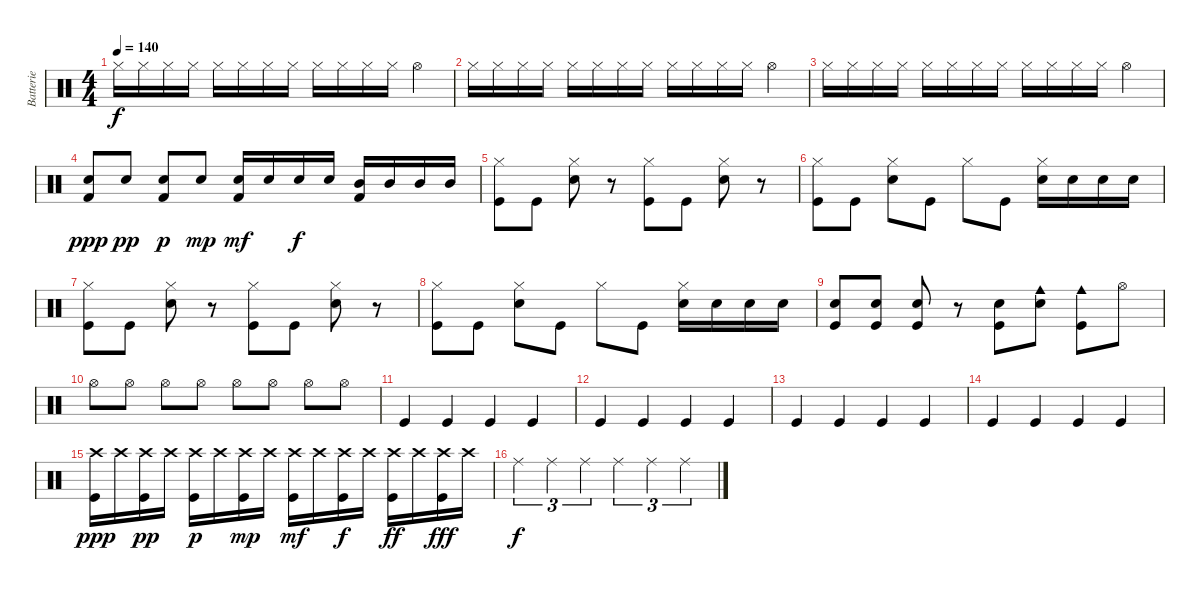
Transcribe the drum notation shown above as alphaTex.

\track ("Batterie" "Batterie") {instrument percussion}
\staff {score}
\articulation defaults
\ts (4 4)
\tempo 140
\clef neutral
\ks c "Hi-Hat (closed)".16{dy f} "Hi-Hat (closed)".16 "Hi-Hat (closed)".16 "Hi-Hat (closed)".16 "Hi-Hat (closed)".16 "Hi-Hat (closed)".16 "Hi-Hat (closed)".16 "Hi-Hat (closed)".16 "Hi-Hat (closed)".16 "Hi-Hat (closed)".16 "Hi-Hat (closed)".16 "Hi-Hat (closed)".16 "Hi-Hat (open)".4
|
"Hi-Hat (closed)".16 "Hi-Hat (closed)".16 "Hi-Hat (closed)".16 "Hi-Hat (closed)".16 "Hi-Hat (closed)".16 "Hi-Hat (closed)".16 "Hi-Hat (closed)".16 "Hi-Hat (closed)".16 "Hi-Hat (closed)".16 "Hi-Hat (closed)".16 "Hi-Hat (closed)".16 "Hi-Hat (closed)".16 "Hi-Hat (open)".4 |
"Hi-Hat (closed)".16 "Hi-Hat (closed)".16 "Hi-Hat (closed)".16 "Hi-Hat (closed)".16 "Hi-Hat (closed)".16 "Hi-Hat (closed)".16 "Hi-Hat (closed)".16 "Hi-Hat (closed)".16 "Hi-Hat (closed)".16 "Hi-Hat (closed)".16 "Hi-Hat (closed)".16 "Hi-Hat (closed)".16 "Hi-Hat (open)".4 |
("Snare (hit) 2" "Kick (hit) 2").8{dy ppp} "Snare (hit) 2".8{dy pp} ("Snare (hit) 2" "Kick (hit) 2").8{dy p} "Snare (hit) 2".8{dy mp} ("Snare (hit) 2" "Kick (hit) 2").16{dy mf} "Snare (hit) 2".16 "Snare (hit) 2".16{dy f} "Snare (hit) 2".16 ("Mid Tom (hit)" "Kick (hit) 2").16 "Mid Tom (hit)".16 "Mid Tom (hit)".16 "Mid Tom (hit)".16 |
("Hi-Hat (closed)" "Kick (hit)").8 "Kick (hit)".8 ("Hi-Hat (closed)" "Snare (hit) 2").8 r.8 ("Hi-Hat (closed)" "Kick (hit)").8 "Kick (hit)".8 ("Hi-Hat (closed)" "Snare (hit) 2").8 r.8 |
("Hi-Hat (closed)" "Kick (hit)").8 "Kick (hit)".8 ("Hi-Hat (closed)" "Snare (hit) 2").8 "Kick (hit)".8 "Hi-Hat (closed)".8 "Kick (hit)".8 ("Hi-Hat (closed)" "Snare (hit) 2").16 "Snare (hit) 2".16 "Snare (hit) 2".16 "Snare (hit) 2".16 |
("Hi-Hat (closed)" "Kick (hit)").8 "Kick (hit)".8 ("Hi-Hat (closed)" "Snare (hit) 2").8 r.8 ("Hi-Hat (closed)" "Kick (hit)").8 "Kick (hit)".8 ("Hi-Hat (closed)" "Snare (hit) 2").8 r.8 |
("Hi-Hat (closed)" "Kick (hit)").8 "Kick (hit)".8 ("Hi-Hat (closed)" "Snare (hit) 2").8 "Kick (hit)".8 "Hi-Hat (closed)".8 "Kick (hit)".8 ("Hi-Hat (closed)" "Snare (hit) 2").16 "Snare (hit) 2".16 "Snare (hit) 2".16 "Snare (hit) 2".16 |
("Snare (hit) 2" "Kick (hit)").8 ("Snare (hit) 2" "Kick (hit)").8 ("Snare (hit) 2" "Kick (hit)").8 r.8 ("Snare (hit) 2" "Kick (hit)").8 ("Cowbell medium (hit)" "Snare (hit) 2").8 ("Cowbell medium (hit)" "Kick (hit)").8 "Hi-Hat (open)".8 |
"Hi-Hat (open)".8 "Hi-Hat (open)".8 "Hi-Hat (open)".8 "Hi-Hat (open)".8 "Hi-Hat (open)".8 "Hi-Hat (open)".8 "Hi-Hat (open)".8 "Hi-Hat (open)".8 |
"Kick (hit)".4 "Kick (hit)".4 "Kick (hit)".4 "Kick (hit)".4 |
"Kick (hit)".4 "Kick (hit)".4 "Kick (hit)".4 "Kick (hit)".4 |
"Kick (hit)".4 "Kick (hit)".4 "Kick (hit)".4 "Kick (hit)".4 |
"Kick (hit)".4 "Kick (hit)".4 "Kick (hit)".4 "Kick (hit)".4 |
("Crash high (hit)" "Kick (hit)").16{dy ppp} "Crash high (hit)".16 ("Crash high (hit)" "Kick (hit)").16{dy pp} "Crash high (hit)".16 ("Crash high (hit)" "Kick (hit)").16{dy p} "Crash high (hit)".16 ("Crash high (hit)" "Kick (hit)").16{dy mp} "Crash high (hit)".16 ("Crash high (hit)" "Kick (hit)").16{dy mf} "Crash high (hit)".16 ("Crash high (hit)" "Kick (hit)").16{dy f} "Crash high (hit)".16 ("Crash high (hit)" "Kick (hit)").16{dy ff} "Crash high (hit)".16 ("Crash high (hit)" "Kick (hit)").16{dy fff} "Crash high (hit)".16 |
"Ride (middle)".4{tu (3 2) dy f} "Ride (middle)".4{tu (3 2)} "Ride (middle)".4{tu (3 2)} "Ride (middle)".4{tu (3 2)} "Ride (middle)".4{tu (3 2)} "Ride (middle)".4{tu (3 2)}
